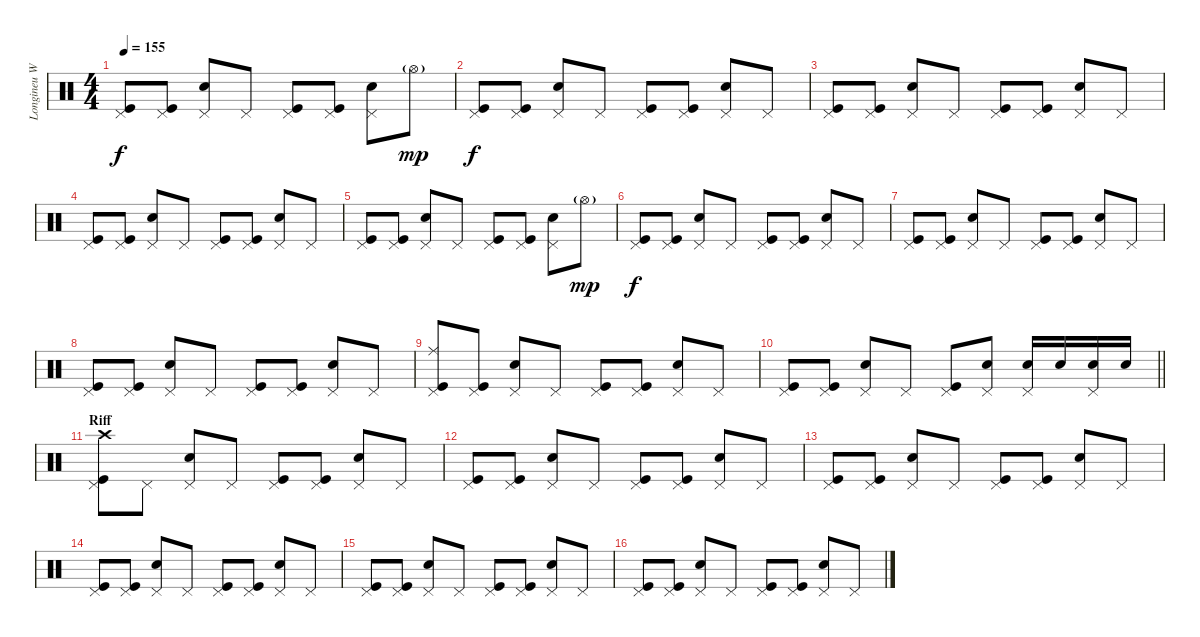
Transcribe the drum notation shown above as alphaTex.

\track ("Longineu W. Parsons III - Drums" "Longineu W") {instrument percussion}
\staff {score}
\articulation defaults
\ts (4 4)
\tempo 155
\clef neutral
\ks c
("Pedal Hi-Hat (hit)" "Kick (hit)").8{dy f} ("Pedal Hi-Hat (hit)" "Kick (hit)").8 ("Pedal Hi-Hat (hit)" "Snare (hit) 2").8 "Pedal Hi-Hat (hit)".8 ("Pedal Hi-Hat (hit)" "Kick (hit)").8 ("Pedal Hi-Hat (hit)" "Kick (hit)").8 ("Pedal Hi-Hat (hit)" "Snare (hit) 2").8 "Hi-Hat (open)"{g}.8{dy mp} |
("Pedal Hi-Hat (hit)" "Kick (hit)").8{dy f} ("Pedal Hi-Hat (hit)" "Kick (hit)").8 ("Pedal Hi-Hat (hit)" "Snare (hit) 2").8 "Pedal Hi-Hat (hit)".8 ("Pedal Hi-Hat (hit)" "Kick (hit)").8 ("Pedal Hi-Hat (hit)" "Kick (hit)").8 ("Pedal Hi-Hat (hit)" "Snare (hit) 2").8 "Pedal Hi-Hat (hit)".8 |
("Pedal Hi-Hat (hit)" "Kick (hit)").8 ("Pedal Hi-Hat (hit)" "Kick (hit)").8 ("Pedal Hi-Hat (hit)" "Snare (hit) 2").8 "Pedal Hi-Hat (hit)".8 ("Pedal Hi-Hat (hit)" "Kick (hit)").8 ("Pedal Hi-Hat (hit)" "Kick (hit)").8 ("Pedal Hi-Hat (hit)" "Snare (hit) 2").8 "Pedal Hi-Hat (hit)".8 |
("Pedal Hi-Hat (hit)" "Kick (hit)").8 ("Pedal Hi-Hat (hit)" "Kick (hit)").8 ("Pedal Hi-Hat (hit)" "Snare (hit) 2").8 "Pedal Hi-Hat (hit)".8 ("Pedal Hi-Hat (hit)" "Kick (hit)").8 ("Pedal Hi-Hat (hit)" "Kick (hit)").8 ("Pedal Hi-Hat (hit)" "Snare (hit) 2").8 "Pedal Hi-Hat (hit)".8 |
("Pedal Hi-Hat (hit)" "Kick (hit)").8 ("Pedal Hi-Hat (hit)" "Kick (hit)").8 ("Pedal Hi-Hat (hit)" "Snare (hit) 2").8 "Pedal Hi-Hat (hit)".8 ("Pedal Hi-Hat (hit)" "Kick (hit)").8 ("Pedal Hi-Hat (hit)" "Kick (hit)").8 ("Pedal Hi-Hat (hit)" "Snare (hit) 2").8 "Hi-Hat (open)"{g}.8{dy mp} |
("Pedal Hi-Hat (hit)" "Kick (hit)").8{dy f} ("Pedal Hi-Hat (hit)" "Kick (hit)").8 ("Pedal Hi-Hat (hit)" "Snare (hit) 2").8 "Pedal Hi-Hat (hit)".8 ("Pedal Hi-Hat (hit)" "Kick (hit)").8 ("Pedal Hi-Hat (hit)" "Kick (hit)").8 ("Pedal Hi-Hat (hit)" "Snare (hit) 2").8 "Pedal Hi-Hat (hit)".8 |
("Pedal Hi-Hat (hit)" "Kick (hit)").8 ("Pedal Hi-Hat (hit)" "Kick (hit)").8 ("Pedal Hi-Hat (hit)" "Snare (hit) 2").8 "Pedal Hi-Hat (hit)".8 ("Pedal Hi-Hat (hit)" "Kick (hit)").8 ("Pedal Hi-Hat (hit)" "Kick (hit)").8 ("Pedal Hi-Hat (hit)" "Snare (hit) 2").8 "Pedal Hi-Hat (hit)".8 |
("Pedal Hi-Hat (hit)" "Kick (hit)").8 ("Pedal Hi-Hat (hit)" "Kick (hit)").8 ("Pedal Hi-Hat (hit)" "Snare (hit) 2").8 "Pedal Hi-Hat (hit)".8 ("Pedal Hi-Hat (hit)" "Kick (hit)").8 ("Pedal Hi-Hat (hit)" "Kick (hit)").8 ("Pedal Hi-Hat (hit)" "Snare (hit) 2").8 "Pedal Hi-Hat (hit)".8 |
("Pedal Hi-Hat (hit)" "Ride (middle)" "Kick (hit)").8 ("Pedal Hi-Hat (hit)" "Kick (hit)").8 ("Pedal Hi-Hat (hit)" "Snare (hit) 2").8 "Pedal Hi-Hat (hit)".8 ("Pedal Hi-Hat (hit)" "Kick (hit)").8 ("Pedal Hi-Hat (hit)" "Kick (hit)").8 ("Pedal Hi-Hat (hit)" "Snare (hit) 2").8 "Pedal Hi-Hat (hit)".8 |
\barLineRight lightlight
("Pedal Hi-Hat (hit)" "Kick (hit)").8 ("Pedal Hi-Hat (hit)" "Kick (hit)").8 ("Pedal Hi-Hat (hit)" "Snare (hit) 2").8 "Pedal Hi-Hat (hit)".8 ("Pedal Hi-Hat (hit)" "Kick (hit)").8 ("Pedal Hi-Hat (hit)" "Snare (hit) 2").8 ("Pedal Hi-Hat (hit)" "Snare (hit) 2").16 "Snare (hit) 2".16 ("Pedal Hi-Hat (hit)" "Snare (hit) 2").16 "Snare (hit) 2".16 |
\section ("" "Riff")
("Crash high (hit)" "Pedal Hi-Hat (hit)" "Kick (hit)").8 "Pedal Hi-Hat (hit)".8 ("Pedal Hi-Hat (hit)" "Snare (hit) 2").8 "Pedal Hi-Hat (hit)".8 ("Pedal Hi-Hat (hit)" "Kick (hit)").8 ("Pedal Hi-Hat (hit)" "Kick (hit)").8 ("Pedal Hi-Hat (hit)" "Snare (hit) 2").8 "Pedal Hi-Hat (hit)".8 |
("Pedal Hi-Hat (hit)" "Kick (hit)").8 ("Pedal Hi-Hat (hit)" "Kick (hit)").8 ("Pedal Hi-Hat (hit)" "Snare (hit) 2").8 "Pedal Hi-Hat (hit)".8 ("Pedal Hi-Hat (hit)" "Kick (hit)").8 ("Pedal Hi-Hat (hit)" "Kick (hit)").8 ("Pedal Hi-Hat (hit)" "Snare (hit) 2").8 "Pedal Hi-Hat (hit)".8 |
("Pedal Hi-Hat (hit)" "Kick (hit)").8 ("Pedal Hi-Hat (hit)" "Kick (hit)").8 ("Pedal Hi-Hat (hit)" "Snare (hit) 2").8 "Pedal Hi-Hat (hit)".8 ("Pedal Hi-Hat (hit)" "Kick (hit)").8 ("Pedal Hi-Hat (hit)" "Kick (hit)").8 ("Pedal Hi-Hat (hit)" "Snare (hit) 2").8 "Pedal Hi-Hat (hit)".8 |
("Pedal Hi-Hat (hit)" "Kick (hit)").8 ("Pedal Hi-Hat (hit)" "Kick (hit)").8 ("Pedal Hi-Hat (hit)" "Snare (hit) 2").8 "Pedal Hi-Hat (hit)".8 ("Pedal Hi-Hat (hit)" "Kick (hit)").8 ("Pedal Hi-Hat (hit)" "Kick (hit)").8 ("Pedal Hi-Hat (hit)" "Snare (hit) 2").8 "Pedal Hi-Hat (hit)".8 |
("Pedal Hi-Hat (hit)" "Kick (hit)").8 ("Pedal Hi-Hat (hit)" "Kick (hit)").8 ("Pedal Hi-Hat (hit)" "Snare (hit) 2").8 "Pedal Hi-Hat (hit)".8 ("Pedal Hi-Hat (hit)" "Kick (hit)").8 ("Pedal Hi-Hat (hit)" "Kick (hit)").8 ("Pedal Hi-Hat (hit)" "Snare (hit) 2").8 "Pedal Hi-Hat (hit)".8 |
("Pedal Hi-Hat (hit)" "Kick (hit)").8 ("Pedal Hi-Hat (hit)" "Kick (hit)").8 ("Pedal Hi-Hat (hit)" "Snare (hit) 2").8 "Pedal Hi-Hat (hit)".8 ("Pedal Hi-Hat (hit)" "Kick (hit)").8 ("Pedal Hi-Hat (hit)" "Kick (hit)").8 ("Pedal Hi-Hat (hit)" "Snare (hit) 2").8 "Pedal Hi-Hat (hit)".8
